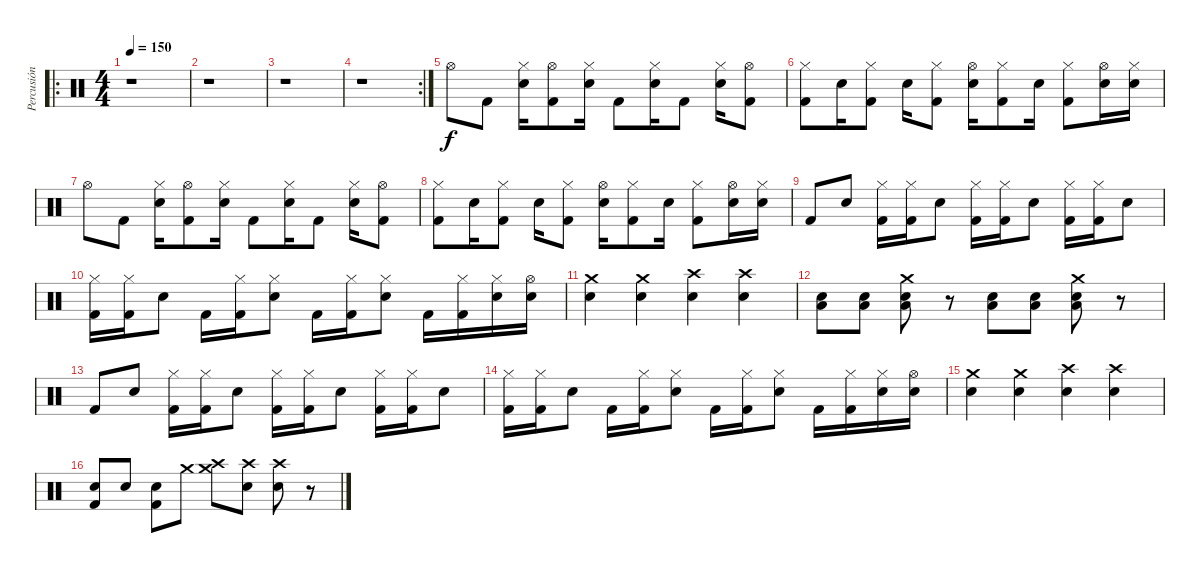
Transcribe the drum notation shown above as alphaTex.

\track ("Percusión" "Percusión") {instrument percussion}
\staff {score}
\articulation defaults
\ro
\ts (4 4)
\tempo 150
\clef neutral
\ks c
r.1{dy f} |
r.1 |
r.1 |
\rc 2
r.1 |
"Hi-Hat (open)".8 "Kick (hit) 2".8 ("Hi-Hat (closed)" "Snare (hit) 2").16 ("Hi-Hat (open)" "Kick (hit) 2").8 ("Hi-Hat (closed)" "Snare (hit) 2").16 "Kick (hit) 2".8 ("Hi-Hat (closed)" "Snare (hit) 2").16 "Kick (hit) 2".8 ("Hi-Hat (closed)" "Snare (hit) 2").16 ("Hi-Hat (open)" "Kick (hit) 2").8 |
("Hi-Hat (closed)" "Kick (hit) 2").8 "Snare (hit) 2".16 ("Hi-Hat (closed)" "Kick (hit) 2").8 "Snare (hit) 2".16 ("Hi-Hat (closed)" "Kick (hit) 2").8 ("Hi-Hat (open)" "Snare (hit) 2").16 ("Hi-Hat (closed)" "Kick (hit) 2").8 "Snare (hit) 2".16 ("Hi-Hat (closed)" "Kick (hit) 2").8 ("Hi-Hat (open)" "Snare (hit) 2").16 ("Hi-Hat (closed)" "Snare (hit) 2").16 |
"Hi-Hat (open)".8 "Kick (hit) 2".8 ("Hi-Hat (closed)" "Snare (hit) 2").16 ("Hi-Hat (open)" "Kick (hit) 2").8 ("Hi-Hat (closed)" "Snare (hit) 2").16 "Kick (hit) 2".8 ("Hi-Hat (closed)" "Snare (hit) 2").16 "Kick (hit) 2".8 ("Hi-Hat (closed)" "Snare (hit) 2").16 ("Hi-Hat (open)" "Kick (hit) 2").8 |
("Hi-Hat (closed)" "Kick (hit) 2").8 "Snare (hit) 2".16 ("Hi-Hat (closed)" "Kick (hit) 2").8 "Snare (hit) 2".16 ("Hi-Hat (closed)" "Kick (hit) 2").8 ("Hi-Hat (open)" "Snare (hit) 2").16 ("Hi-Hat (closed)" "Kick (hit) 2").8 "Snare (hit) 2".16 ("Hi-Hat (closed)" "Kick (hit) 2").8 ("Hi-Hat (open)" "Snare (hit) 2").16 ("Hi-Hat (closed)" "Snare (hit) 2").16 |
"Kick (hit) 2".8 "Snare (hit) 2".8 ("Hi-Hat (closed)" "Kick (hit) 2").16 ("Hi-Hat (closed)" "Kick (hit) 2").16 "Snare (hit) 2".8 ("Hi-Hat (closed)" "Kick (hit) 2").16 ("Hi-Hat (closed)" "Kick (hit) 2").16 "Snare (hit) 2".8 ("Hi-Hat (closed)" "Kick (hit) 2").16 ("Hi-Hat (closed)" "Kick (hit) 2").16 "Snare (hit) 2".8 |
("Hi-Hat (closed)" "Kick (hit) 2").16 ("Hi-Hat (closed)" "Kick (hit) 2").16 "Snare (hit) 2".8 "Kick (hit) 2".16 ("Hi-Hat (closed)" "Kick (hit) 2").16 ("Hi-Hat (closed)" "Snare (hit) 2").8 "Kick (hit) 2".16 ("Hi-Hat (closed)" "Kick (hit) 2").16 ("Hi-Hat (closed)" "Snare (hit) 2").8 "Kick (hit) 2".16 ("Hi-Hat (closed)" "Kick (hit) 2").16 ("Hi-Hat (closed)" "Snare (hit) 2").16 ("Hi-Hat (open)" "Snare (hit) 2").16 |
("Crash medium (hit)" "Snare (hit) 2").4 ("Crash medium (hit)" "Snare (hit) 2").4 ("Crash high (hit)" "Snare (hit) 2").4 ("Crash high (hit)" "Snare (hit) 2").4 |
("Low Floor Tom (hit)" "Snare (hit) 2").8 ("Low Floor Tom (hit)" "Snare (hit) 2").8 ("Crash medium (hit)" "Low Floor Tom (hit)" "Snare (hit) 2").8 r.8 ("Low Floor Tom (hit)" "Snare (hit) 2").8 ("Low Floor Tom (hit)" "Snare (hit) 2").8 ("Crash medium (hit)" "Low Floor Tom (hit)" "Snare (hit) 2").8 r.8 |
"Kick (hit) 2".8 "Snare (hit) 2".8 ("Hi-Hat (closed)" "Kick (hit) 2").16 ("Hi-Hat (closed)" "Kick (hit) 2").16 "Snare (hit) 2".8 ("Hi-Hat (closed)" "Kick (hit) 2").16 ("Hi-Hat (closed)" "Kick (hit) 2").16 "Snare (hit) 2".8 ("Hi-Hat (closed)" "Kick (hit) 2").16 ("Hi-Hat (closed)" "Kick (hit) 2").16 "Snare (hit) 2".8 |
("Hi-Hat (closed)" "Kick (hit) 2").16 ("Hi-Hat (closed)" "Kick (hit) 2").16 "Snare (hit) 2".8 "Kick (hit) 2".16 ("Hi-Hat (closed)" "Kick (hit) 2").16 ("Hi-Hat (closed)" "Snare (hit) 2").8 "Kick (hit) 2".16 ("Hi-Hat (closed)" "Kick (hit) 2").16 ("Hi-Hat (closed)" "Snare (hit) 2").8 "Kick (hit) 2".16 ("Hi-Hat (closed)" "Kick (hit) 2").16 ("Hi-Hat (closed)" "Snare (hit) 2").16 ("Hi-Hat (open)" "Snare (hit) 2").16 |
("Crash medium (hit)" "Snare (hit) 2").4 ("Crash medium (hit)" "Snare (hit) 2").4 ("Crash high (hit)" "Snare (hit) 2").4 ("Crash high (hit)" "Snare (hit) 2").4 |
("Kick (hit) 2" "Snare (hit) 2").8 "Snare (hit) 2".8 ("Kick (hit) 2" "Snare (hit) 2").8 "Crash medium (hit)".8 ("Crash high (hit)" "Crash medium (hit)").8 ("Crash high (hit)" "Snare (hit) 2").8 ("Crash high (hit)" "Snare (hit) 2").8 r.8
